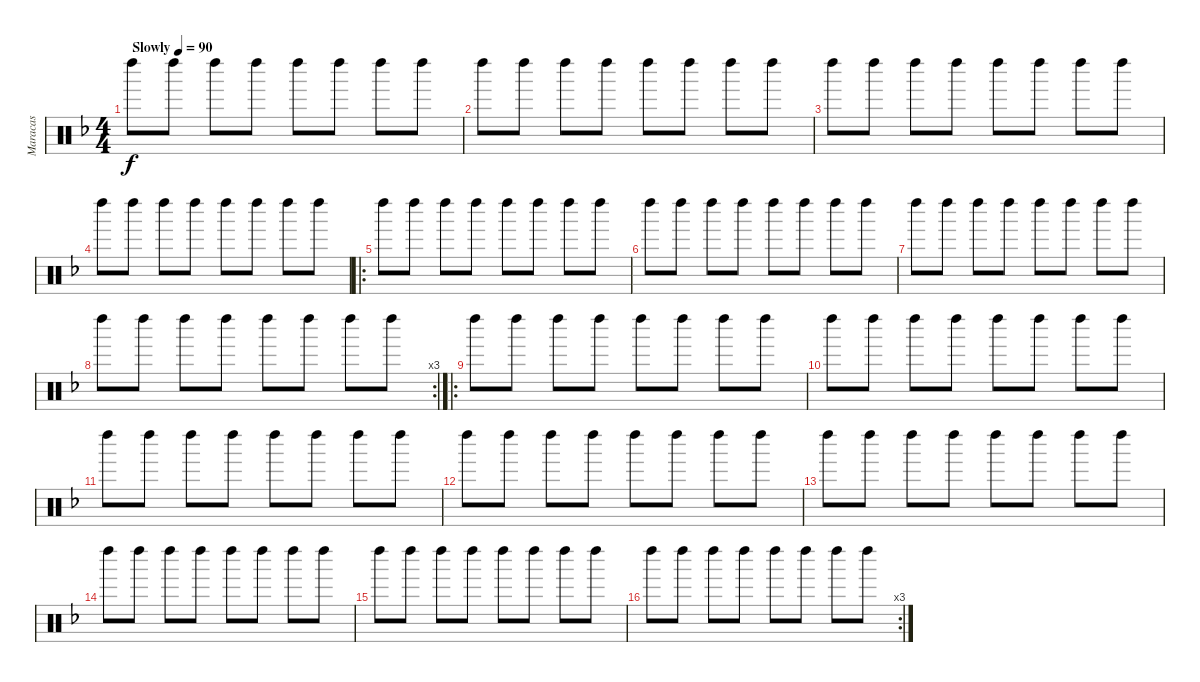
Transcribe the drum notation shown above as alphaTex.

\track ("Maracas" "Maracas") {instrument percussion}
\staff {score}
\articulation defaults
\ts (4 4)
\tempo (90 "Slowly")
\clef neutral
\ks dminor "Left Maraca (hit)".8{dy f} "Left Maraca (hit)".8 "Left Maraca (hit)".8 "Left Maraca (hit)".8 "Left Maraca (hit)".8 "Left Maraca (hit)".8 "Left Maraca (hit)".8 "Left Maraca (hit)".8
|
"Left Maraca (hit)".8 "Left Maraca (hit)".8 "Left Maraca (hit)".8 "Left Maraca (hit)".8 "Left Maraca (hit)".8 "Left Maraca (hit)".8 "Left Maraca (hit)".8 "Left Maraca (hit)".8 |
"Left Maraca (hit)".8 "Left Maraca (hit)".8 "Left Maraca (hit)".8 "Left Maraca (hit)".8 "Left Maraca (hit)".8 "Left Maraca (hit)".8 "Left Maraca (hit)".8 "Left Maraca (hit)".8 |
"Left Maraca (hit)".8 "Left Maraca (hit)".8 "Left Maraca (hit)".8 "Left Maraca (hit)".8 "Left Maraca (hit)".8 "Left Maraca (hit)".8 "Left Maraca (hit)".8 "Left Maraca (hit)".8 |
\ro "Left Maraca (hit)".8 "Left Maraca (hit)".8 "Left Maraca (hit)".8 "Left Maraca (hit)".8 "Left Maraca (hit)".8 "Left Maraca (hit)".8 "Left Maraca (hit)".8 "Left Maraca (hit)".8
|
"Left Maraca (hit)".8 "Left Maraca (hit)".8 "Left Maraca (hit)".8 "Left Maraca (hit)".8 "Left Maraca (hit)".8 "Left Maraca (hit)".8 "Left Maraca (hit)".8 "Left Maraca (hit)".8 |
"Left Maraca (hit)".8 "Left Maraca (hit)".8 "Left Maraca (hit)".8 "Left Maraca (hit)".8 "Left Maraca (hit)".8 "Left Maraca (hit)".8 "Left Maraca (hit)".8 "Left Maraca (hit)".8 |
\rc 3 "Left Maraca (hit)".8 "Left Maraca (hit)".8 "Left Maraca (hit)".8 "Left Maraca (hit)".8 "Left Maraca (hit)".8 "Left Maraca (hit)".8 "Left Maraca (hit)".8 "Left Maraca (hit)".8
|
\ro "Left Maraca (hit)".8 "Left Maraca (hit)".8 "Left Maraca (hit)".8 "Left Maraca (hit)".8 "Left Maraca (hit)".8 "Left Maraca (hit)".8 "Left Maraca (hit)".8 "Left Maraca (hit)".8
|
"Left Maraca (hit)".8 "Left Maraca (hit)".8 "Left Maraca (hit)".8 "Left Maraca (hit)".8 "Left Maraca (hit)".8 "Left Maraca (hit)".8 "Left Maraca (hit)".8 "Left Maraca (hit)".8 |
"Left Maraca (hit)".8 "Left Maraca (hit)".8 "Left Maraca (hit)".8 "Left Maraca (hit)".8 "Left Maraca (hit)".8 "Left Maraca (hit)".8 "Left Maraca (hit)".8 "Left Maraca (hit)".8 |
"Left Maraca (hit)".8 "Left Maraca (hit)".8 "Left Maraca (hit)".8 "Left Maraca (hit)".8 "Left Maraca (hit)".8 "Left Maraca (hit)".8 "Left Maraca (hit)".8 "Left Maraca (hit)".8 |
"Left Maraca (hit)".8 "Left Maraca (hit)".8 "Left Maraca (hit)".8 "Left Maraca (hit)".8 "Left Maraca (hit)".8 "Left Maraca (hit)".8 "Left Maraca (hit)".8 "Left Maraca (hit)".8 |
"Left Maraca (hit)".8 "Left Maraca (hit)".8 "Left Maraca (hit)".8 "Left Maraca (hit)".8 "Left Maraca (hit)".8 "Left Maraca (hit)".8 "Left Maraca (hit)".8 "Left Maraca (hit)".8 |
"Left Maraca (hit)".8 "Left Maraca (hit)".8 "Left Maraca (hit)".8 "Left Maraca (hit)".8 "Left Maraca (hit)".8 "Left Maraca (hit)".8 "Left Maraca (hit)".8 "Left Maraca (hit)".8 |
\rc 3 "Left Maraca (hit)".8 "Left Maraca (hit)".8 "Left Maraca (hit)".8 "Left Maraca (hit)".8 "Left Maraca (hit)".8 "Left Maraca (hit)".8 "Left Maraca (hit)".8 "Left Maraca (hit)".8
